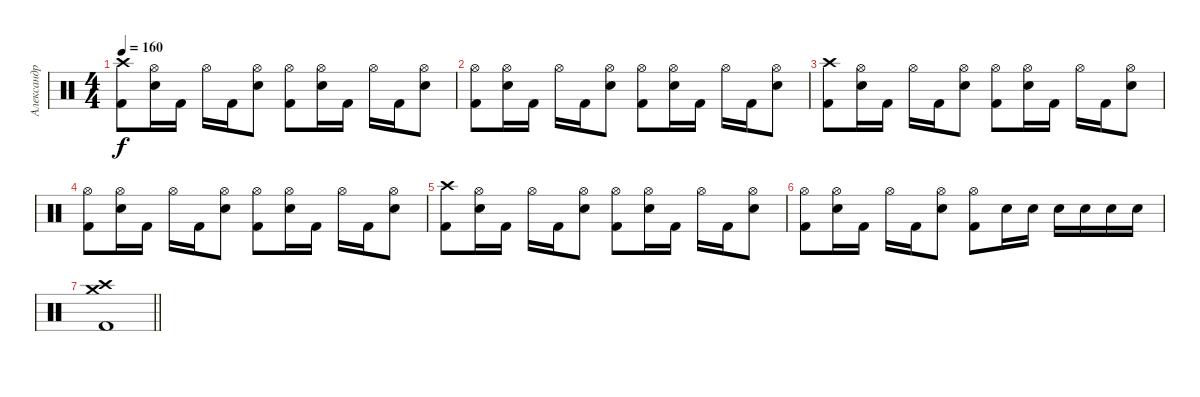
\track ("Александр Карпухин" "Александр ") {instrument percussion}
\staff {score}
\articulation defaults
\ts (4 4)
\tempo 160
\clef neutral
\ks c
("Crash high (hit)" "Kick (hit) 2").8{dy f} ("Hi-Hat (open)" "Electric Snare (hit)").16 "Kick (hit) 2".16 "Hi-Hat (open)".16 "Kick (hit) 2".16 ("Hi-Hat (open)" "Electric Snare (hit)").8 ("Hi-Hat (open)" "Kick (hit) 2").8 ("Hi-Hat (open)" "Electric Snare (hit)").16 "Kick (hit) 2".16 "Hi-Hat (open)".16 "Kick (hit) 2".16 ("Hi-Hat (open)" "Electric Snare (hit)").8 |
("Hi-Hat (open)" "Kick (hit) 2").8 ("Hi-Hat (open)" "Electric Snare (hit)").16 "Kick (hit) 2".16 "Hi-Hat (open)".16 "Kick (hit) 2".16 ("Hi-Hat (open)" "Electric Snare (hit)").8 ("Hi-Hat (open)" "Kick (hit) 2").8 ("Hi-Hat (open)" "Electric Snare (hit)").16 "Kick (hit) 2".16 "Hi-Hat (open)".16 "Kick (hit) 2".16 ("Hi-Hat (open)" "Electric Snare (hit)").8 |
("Crash high (hit)" "Kick (hit) 2").8 ("Hi-Hat (open)" "Electric Snare (hit)").16 "Kick (hit) 2".16 "Hi-Hat (open)".16 "Kick (hit) 2".16 ("Hi-Hat (open)" "Electric Snare (hit)").8 ("Hi-Hat (open)" "Kick (hit) 2").8 ("Hi-Hat (open)" "Electric Snare (hit)").16 "Kick (hit) 2".16 "Hi-Hat (open)".16 "Kick (hit) 2".16 ("Hi-Hat (open)" "Electric Snare (hit)").8 |
("Hi-Hat (open)" "Kick (hit) 2").8 ("Hi-Hat (open)" "Electric Snare (hit)").16 "Kick (hit) 2".16 "Hi-Hat (open)".16 "Kick (hit) 2".16 ("Hi-Hat (open)" "Electric Snare (hit)").8 ("Hi-Hat (open)" "Kick (hit) 2").8 ("Hi-Hat (open)" "Electric Snare (hit)").16 "Kick (hit) 2".16 "Hi-Hat (open)".16 "Kick (hit) 2".16 ("Hi-Hat (open)" "Electric Snare (hit)").8 |
("Crash high (hit)" "Kick (hit) 2").8 ("Hi-Hat (open)" "Electric Snare (hit)").16 "Kick (hit) 2".16 "Hi-Hat (open)".16 "Kick (hit) 2".16 ("Hi-Hat (open)" "Electric Snare (hit)").8 ("Hi-Hat (open)" "Kick (hit) 2").8 ("Hi-Hat (open)" "Electric Snare (hit)").16 "Kick (hit) 2".16 "Hi-Hat (open)".16 "Kick (hit) 2".16 ("Hi-Hat (open)" "Electric Snare (hit)").8 |
("Hi-Hat (open)" "Kick (hit) 2").8 ("Hi-Hat (open)" "Electric Snare (hit)").16 "Kick (hit) 2".16 "Hi-Hat (open)".16 "Kick (hit) 2".16 ("Hi-Hat (open)" "Electric Snare (hit)").8 ("Hi-Hat (open)" "Kick (hit) 2").8 "Electric Snare (hit)".16 "Electric Snare (hit)".16 "Electric Snare (hit)".16 "Electric Snare (hit)".16 "Electric Snare (hit)".16 "Electric Snare (hit)".16 |
\barLineRight lightlight
("Crash high (hit)" "Crash medium (hit)" "Kick (hit) 2").1
